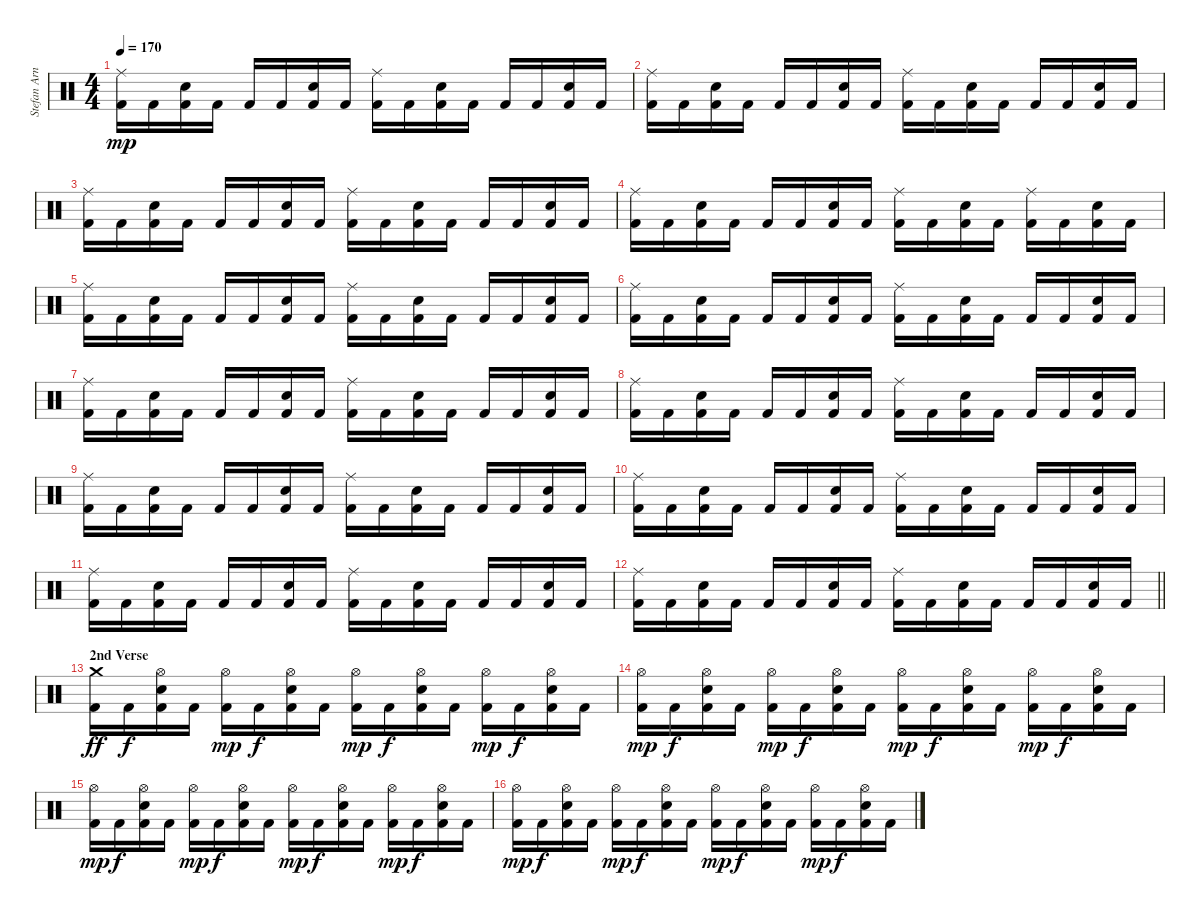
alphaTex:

\track ("Stefan Arnold" "Stefan Arn") {instrument percussion}
\staff {score}
\articulation defaults
\ts (4 4)
\tempo 170
\clef neutral
\ks c
("Ride (middle)" "Kick (hit) 2").16{dy mp} "Kick (hit) 2".16 ("Electric Snare (hit)" "Kick (hit) 2").16 "Kick (hit) 2".16 "Kick (hit) 2".16 "Kick (hit) 2".16 ("Electric Snare (hit)" "Kick (hit) 2").16 "Kick (hit) 2".16 ("Ride (middle)" "Kick (hit) 2").16 "Kick (hit) 2".16 ("Electric Snare (hit)" "Kick (hit) 2").16 "Kick (hit) 2".16 "Kick (hit) 2".16 "Kick (hit) 2".16 ("Electric Snare (hit)" "Kick (hit) 2").16 "Kick (hit) 2".16 |
("Ride (middle)" "Kick (hit) 2").16 "Kick (hit) 2".16 ("Electric Snare (hit)" "Kick (hit) 2").16 "Kick (hit) 2".16 "Kick (hit) 2".16 "Kick (hit) 2".16 ("Electric Snare (hit)" "Kick (hit) 2").16 "Kick (hit) 2".16 ("Ride (middle)" "Kick (hit) 2").16 "Kick (hit) 2".16 ("Electric Snare (hit)" "Kick (hit) 2").16 "Kick (hit) 2".16 "Kick (hit) 2".16 "Kick (hit) 2".16 ("Electric Snare (hit)" "Kick (hit) 2").16 "Kick (hit) 2".16 |
("Ride (middle)" "Kick (hit) 2").16 "Kick (hit) 2".16 ("Electric Snare (hit)" "Kick (hit) 2").16 "Kick (hit) 2".16 "Kick (hit) 2".16 "Kick (hit) 2".16 ("Electric Snare (hit)" "Kick (hit) 2").16 "Kick (hit) 2".16 ("Ride (middle)" "Kick (hit) 2").16 "Kick (hit) 2".16 ("Electric Snare (hit)" "Kick (hit) 2").16 "Kick (hit) 2".16 "Kick (hit) 2".16 "Kick (hit) 2".16 ("Electric Snare (hit)" "Kick (hit) 2").16 "Kick (hit) 2".16 |
("Ride (middle)" "Kick (hit) 2").16 "Kick (hit) 2".16 ("Electric Snare (hit)" "Kick (hit) 2").16 "Kick (hit) 2".16 "Kick (hit) 2".16 "Kick (hit) 2".16 ("Electric Snare (hit)" "Kick (hit) 2").16 "Kick (hit) 2".16 ("Ride (middle)" "Kick (hit) 2").16 "Kick (hit) 2".16 ("Electric Snare (hit)" "Kick (hit) 2").16 "Kick (hit) 2".16 ("Ride (middle)" "Kick (hit) 2").16 "Kick (hit) 2".16 ("Electric Snare (hit)" "Kick (hit) 2").16 "Kick (hit) 2".16 |
("Ride (middle)" "Kick (hit) 2").16 "Kick (hit) 2".16 ("Electric Snare (hit)" "Kick (hit) 2").16 "Kick (hit) 2".16 "Kick (hit) 2".16 "Kick (hit) 2".16 ("Electric Snare (hit)" "Kick (hit) 2").16 "Kick (hit) 2".16 ("Ride (middle)" "Kick (hit) 2").16 "Kick (hit) 2".16 ("Electric Snare (hit)" "Kick (hit) 2").16 "Kick (hit) 2".16 "Kick (hit) 2".16 "Kick (hit) 2".16 ("Electric Snare (hit)" "Kick (hit) 2").16 "Kick (hit) 2".16 |
("Ride (middle)" "Kick (hit) 2").16 "Kick (hit) 2".16 ("Electric Snare (hit)" "Kick (hit) 2").16 "Kick (hit) 2".16 "Kick (hit) 2".16 "Kick (hit) 2".16 ("Electric Snare (hit)" "Kick (hit) 2").16 "Kick (hit) 2".16 ("Ride (middle)" "Kick (hit) 2").16 "Kick (hit) 2".16 ("Electric Snare (hit)" "Kick (hit) 2").16 "Kick (hit) 2".16 "Kick (hit) 2".16 "Kick (hit) 2".16 ("Electric Snare (hit)" "Kick (hit) 2").16 "Kick (hit) 2".16 |
("Ride (middle)" "Kick (hit) 2").16 "Kick (hit) 2".16 ("Electric Snare (hit)" "Kick (hit) 2").16 "Kick (hit) 2".16 "Kick (hit) 2".16 "Kick (hit) 2".16 ("Electric Snare (hit)" "Kick (hit) 2").16 "Kick (hit) 2".16 ("Ride (middle)" "Kick (hit) 2").16 "Kick (hit) 2".16 ("Electric Snare (hit)" "Kick (hit) 2").16 "Kick (hit) 2".16 "Kick (hit) 2".16 "Kick (hit) 2".16 ("Electric Snare (hit)" "Kick (hit) 2").16 "Kick (hit) 2".16 |
("Ride (middle)" "Kick (hit) 2").16 "Kick (hit) 2".16 ("Electric Snare (hit)" "Kick (hit) 2").16 "Kick (hit) 2".16 "Kick (hit) 2".16 "Kick (hit) 2".16 ("Electric Snare (hit)" "Kick (hit) 2").16 "Kick (hit) 2".16 ("Ride (middle)" "Kick (hit) 2").16 "Kick (hit) 2".16 ("Electric Snare (hit)" "Kick (hit) 2").16 "Kick (hit) 2".16 "Kick (hit) 2".16 "Kick (hit) 2".16 ("Electric Snare (hit)" "Kick (hit) 2").16 "Kick (hit) 2".16 |
("Ride (middle)" "Kick (hit) 2").16 "Kick (hit) 2".16 ("Electric Snare (hit)" "Kick (hit) 2").16 "Kick (hit) 2".16 "Kick (hit) 2".16 "Kick (hit) 2".16 ("Electric Snare (hit)" "Kick (hit) 2").16 "Kick (hit) 2".16 ("Ride (middle)" "Kick (hit) 2").16 "Kick (hit) 2".16 ("Electric Snare (hit)" "Kick (hit) 2").16 "Kick (hit) 2".16 "Kick (hit) 2".16 "Kick (hit) 2".16 ("Electric Snare (hit)" "Kick (hit) 2").16 "Kick (hit) 2".16 |
("Ride (middle)" "Kick (hit) 2").16 "Kick (hit) 2".16 ("Electric Snare (hit)" "Kick (hit) 2").16 "Kick (hit) 2".16 "Kick (hit) 2".16 "Kick (hit) 2".16 ("Electric Snare (hit)" "Kick (hit) 2").16 "Kick (hit) 2".16 ("Ride (middle)" "Kick (hit) 2").16 "Kick (hit) 2".16 ("Electric Snare (hit)" "Kick (hit) 2").16 "Kick (hit) 2".16 "Kick (hit) 2".16 "Kick (hit) 2".16 ("Electric Snare (hit)" "Kick (hit) 2").16 "Kick (hit) 2".16 |
("Ride (middle)" "Kick (hit) 2").16 "Kick (hit) 2".16 ("Electric Snare (hit)" "Kick (hit) 2").16 "Kick (hit) 2".16 "Kick (hit) 2".16 "Kick (hit) 2".16 ("Electric Snare (hit)" "Kick (hit) 2").16 "Kick (hit) 2".16 ("Ride (middle)" "Kick (hit) 2").16 "Kick (hit) 2".16 ("Electric Snare (hit)" "Kick (hit) 2").16 "Kick (hit) 2".16 "Kick (hit) 2".16 "Kick (hit) 2".16 ("Electric Snare (hit)" "Kick (hit) 2").16 "Kick (hit) 2".16 |
\barLineRight lightlight
("Ride (middle)" "Kick (hit) 2").16 "Kick (hit) 2".16 ("Electric Snare (hit)" "Kick (hit) 2").16 "Kick (hit) 2".16 "Kick (hit) 2".16 "Kick (hit) 2".16 ("Electric Snare (hit)" "Kick (hit) 2").16 "Kick (hit) 2".16 ("Ride (middle)" "Kick (hit) 2").16 "Kick (hit) 2".16 ("Electric Snare (hit)" "Kick (hit) 2").16 "Kick (hit) 2".16 "Kick (hit) 2".16 "Kick (hit) 2".16 ("Electric Snare (hit)" "Kick (hit) 2").16 "Kick (hit) 2".16 |
\section ("" "2nd Verse")
("Crash medium (hit)" "Kick (hit) 2").16{dy ff} "Kick (hit) 2".16{dy f} ("Hi-Hat (open)" "Electric Snare (hit)" "Kick (hit) 2").16 "Kick (hit) 2".16 ("Hi-Hat (open)" "Kick (hit) 2").16{dy mp} "Kick (hit) 2".16{dy f} ("Hi-Hat (open)" "Electric Snare (hit)" "Kick (hit) 2").16 "Kick (hit) 2".16 ("Hi-Hat (open)" "Kick (hit) 2").16{dy mp} "Kick (hit) 2".16{dy f} ("Hi-Hat (open)" "Electric Snare (hit)" "Kick (hit) 2").16 "Kick (hit) 2".16 ("Hi-Hat (open)" "Kick (hit) 2").16{dy mp} "Kick (hit) 2".16{dy f} ("Hi-Hat (open)" "Electric Snare (hit)" "Kick (hit) 2").16 "Kick (hit) 2".16 |
("Hi-Hat (open)" "Kick (hit) 2").16{dy mp} "Kick (hit) 2".16{dy f} ("Hi-Hat (open)" "Electric Snare (hit)" "Kick (hit) 2").16 "Kick (hit) 2".16 ("Hi-Hat (open)" "Kick (hit) 2").16{dy mp} "Kick (hit) 2".16{dy f} ("Hi-Hat (open)" "Electric Snare (hit)" "Kick (hit) 2").16 "Kick (hit) 2".16 ("Hi-Hat (open)" "Kick (hit) 2").16{dy mp} "Kick (hit) 2".16{dy f} ("Hi-Hat (open)" "Electric Snare (hit)" "Kick (hit) 2").16 "Kick (hit) 2".16 ("Hi-Hat (open)" "Kick (hit) 2").16{dy mp} "Kick (hit) 2".16{dy f} ("Hi-Hat (open)" "Electric Snare (hit)" "Kick (hit) 2").16 "Kick (hit) 2".16 |
("Hi-Hat (open)" "Kick (hit) 2").16{dy mp} "Kick (hit) 2".16{dy f} ("Hi-Hat (open)" "Electric Snare (hit)" "Kick (hit) 2").16 "Kick (hit) 2".16 ("Hi-Hat (open)" "Kick (hit) 2").16{dy mp} "Kick (hit) 2".16{dy f} ("Hi-Hat (open)" "Electric Snare (hit)" "Kick (hit) 2").16 "Kick (hit) 2".16 ("Hi-Hat (open)" "Kick (hit) 2").16{dy mp} "Kick (hit) 2".16{dy f} ("Hi-Hat (open)" "Electric Snare (hit)" "Kick (hit) 2").16 "Kick (hit) 2".16 ("Hi-Hat (open)" "Kick (hit) 2").16{dy mp} "Kick (hit) 2".16{dy f} ("Hi-Hat (open)" "Electric Snare (hit)" "Kick (hit) 2").16 "Kick (hit) 2".16 |
("Hi-Hat (open)" "Kick (hit) 2").16{dy mp} "Kick (hit) 2".16{dy f} ("Hi-Hat (open)" "Electric Snare (hit)" "Kick (hit) 2").16 "Kick (hit) 2".16 ("Hi-Hat (open)" "Kick (hit) 2").16{dy mp} "Kick (hit) 2".16{dy f} ("Hi-Hat (open)" "Electric Snare (hit)" "Kick (hit) 2").16 "Kick (hit) 2".16 ("Hi-Hat (open)" "Kick (hit) 2").16{dy mp} "Kick (hit) 2".16{dy f} ("Hi-Hat (open)" "Electric Snare (hit)" "Kick (hit) 2").16 "Kick (hit) 2".16 ("Hi-Hat (open)" "Kick (hit) 2").16{dy mp} "Kick (hit) 2".16{dy f} ("Hi-Hat (open)" "Electric Snare (hit)" "Kick (hit) 2").16 "Kick (hit) 2".16
